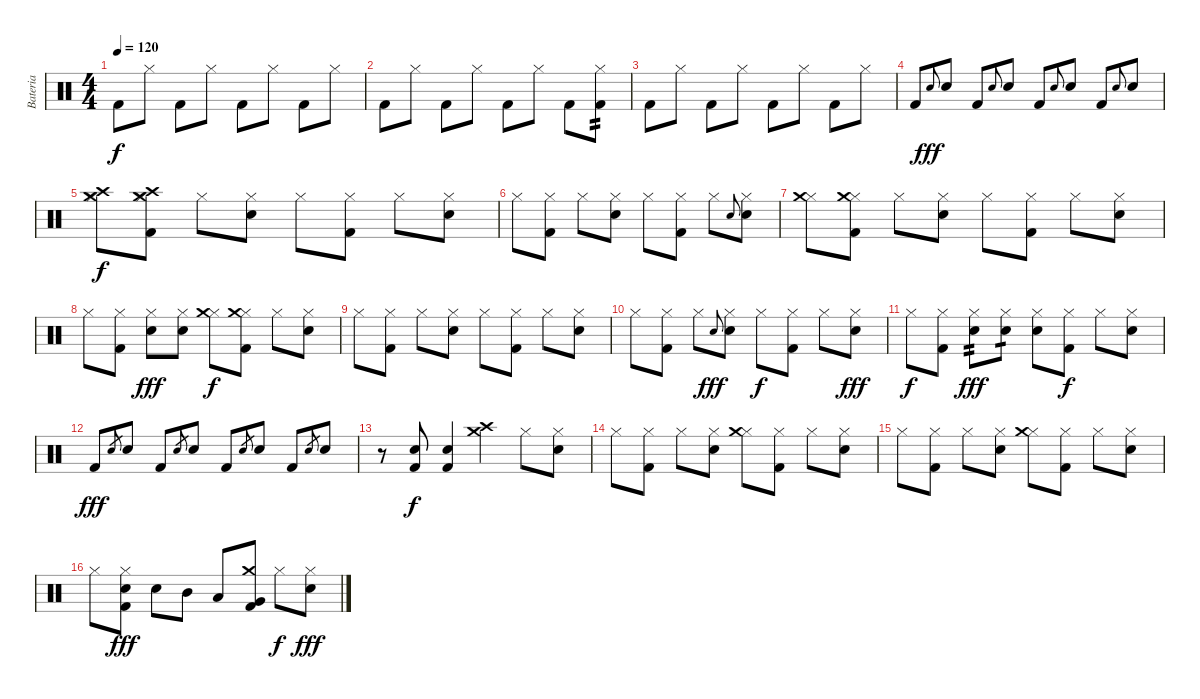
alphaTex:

\track ("Bateria" "Bateria") {instrument percussion}
\staff {score}
\articulation defaults
\ts (4 4)
\tempo 120
\clef neutral
\ks c "Kick (hit) 2".8{dy f} "Hi-Hat (closed)".8 "Kick (hit) 2".8 "Hi-Hat (closed)".8 "Kick (hit) 2".8 "Hi-Hat (closed)".8 "Kick (hit) 2".8 "Hi-Hat (closed)".8
|
"Kick (hit) 2".8 "Hi-Hat (closed)".8 "Kick (hit) 2".8 "Hi-Hat (closed)".8 "Kick (hit) 2".8 "Hi-Hat (closed)".8 "Kick (hit) 2".8 ("Hi-Hat (closed)" "Kick (hit) 2").8{tp 2} |
"Kick (hit) 2".8 "Hi-Hat (closed)".8 "Kick (hit) 2".8 "Hi-Hat (closed)".8 "Kick (hit) 2".8 "Hi-Hat (closed)".8 "Kick (hit) 2".8 "Hi-Hat (closed)".8 |
"Kick (hit) 2".8 "Electric Snare (hit)".8{gr onbeat dy fff} "Electric Snare (hit)".8 "Kick (hit) 2".8 "Electric Snare (hit)".8{gr onbeat} "Electric Snare (hit)".8 "Kick (hit) 2".8 "Electric Snare (hit)".8{gr onbeat} "Electric Snare (hit)".8 "Kick (hit) 2".8 "Electric Snare (hit)".8{gr onbeat} "Electric Snare (hit)".8 |
("Hi-Hat (closed)" "Crash medium (hit)" "Crash high (hit)").8{dy f} ("Hi-Hat (closed)" "Kick (hit) 2" "Crash medium (hit)" "Crash high (hit)").8 "Hi-Hat (closed)".8 ("Hi-Hat (closed)" "Electric Snare (hit)").8 "Hi-Hat (closed)".8 ("Hi-Hat (closed)" "Kick (hit) 2").8 "Hi-Hat (closed)".8 ("Hi-Hat (closed)" "Electric Snare (hit)").8 |
"Hi-Hat (closed)".8 ("Hi-Hat (closed)" "Kick (hit) 2").8 "Hi-Hat (closed)".8 ("Hi-Hat (closed)" "Electric Snare (hit)").8 "Hi-Hat (closed)".8 ("Hi-Hat (closed)" "Kick (hit) 2").8 "Hi-Hat (closed)".8 "Electric Snare (hit)".8{gr onbeat} ("Hi-Hat (closed)" "Electric Snare (hit)").8 |
("Hi-Hat (closed)" "Crash medium (hit)").8 ("Hi-Hat (closed)" "Kick (hit) 2" "Crash medium (hit)").8 "Hi-Hat (closed)".8 ("Hi-Hat (closed)" "Electric Snare (hit)").8 "Hi-Hat (closed)".8 ("Hi-Hat (closed)" "Kick (hit) 2").8 "Hi-Hat (closed)".8 ("Hi-Hat (closed)" "Electric Snare (hit)").8 |
"Hi-Hat (closed)".8 ("Hi-Hat (closed)" "Kick (hit) 2").8 ("Hi-Hat (closed)" "Electric Snare (hit)").8{dy fff} ("Hi-Hat (closed)" "Electric Snare (hit)").8 ("Hi-Hat (closed)" "Crash medium (hit)").8{dy f} ("Hi-Hat (closed)" "Kick (hit) 2" "Crash medium (hit)").8 "Hi-Hat (closed)".8 ("Hi-Hat (closed)" "Electric Snare (hit)").8 |
"Hi-Hat (closed)".8 ("Hi-Hat (closed)" "Kick (hit) 2").8 "Hi-Hat (closed)".8 ("Hi-Hat (closed)" "Electric Snare (hit)").8 "Hi-Hat (closed)".8 ("Hi-Hat (closed)" "Kick (hit) 2").8 "Hi-Hat (closed)".8 ("Hi-Hat (closed)" "Electric Snare (hit)").8 |
"Hi-Hat (closed)".8 ("Hi-Hat (closed)" "Kick (hit) 2").8 "Hi-Hat (closed)".8 "Electric Snare (hit)".8{gr onbeat dy fff} ("Hi-Hat (closed)" "Electric Snare (hit)").8 "Hi-Hat (closed)".8{dy f} ("Hi-Hat (closed)" "Kick (hit) 2").8 "Hi-Hat (closed)".8 ("Hi-Hat (closed)" "Electric Snare (hit)").8{dy fff} |
"Hi-Hat (closed)".8{dy f} ("Hi-Hat (closed)" "Kick (hit) 2").8 ("Hi-Hat (closed)" "Electric Snare (hit)").8{tp 2 dy fff} ("Hi-Hat (closed)" "Electric Snare (hit)").8{tp 1} ("Hi-Hat (closed)" "Electric Snare (hit)").8 ("Hi-Hat (closed)" "Kick (hit) 2").8{dy f} "Hi-Hat (closed)".8 ("Hi-Hat (closed)" "Electric Snare (hit)").8 |
"Kick (hit) 2".8{dy fff} "Electric Snare (hit)".8{gr} "Electric Snare (hit)".8 "Kick (hit) 2".8 "Electric Snare (hit)".8{gr} "Electric Snare (hit)".8 "Kick (hit) 2".8 "Electric Snare (hit)".8{gr} "Electric Snare (hit)".8 "Kick (hit) 2".8 "Electric Snare (hit)".8{gr} "Electric Snare (hit)".8 |
r.8 ("Electric Snare (hit)" "Kick (hit) 2").8{dy f} ("Electric Snare (hit)" "Kick (hit) 2").4 ("Crash medium (hit)" "Crash high (hit)").4 "Hi-Hat (closed)".8 ("Hi-Hat (closed)" "Electric Snare (hit)").8 |
"Hi-Hat (closed)".8 ("Hi-Hat (closed)" "Kick (hit) 2").8 "Hi-Hat (closed)".8 ("Hi-Hat (closed)" "Electric Snare (hit)").8 ("Hi-Hat (closed)" "Crash medium (hit)").8 ("Hi-Hat (closed)" "Kick (hit) 2").8 "Hi-Hat (closed)".8 ("Hi-Hat (closed)" "Electric Snare (hit)").8 |
"Hi-Hat (closed)".8 ("Hi-Hat (closed)" "Kick (hit) 2").8 "Hi-Hat (closed)".8 ("Hi-Hat (closed)" "Electric Snare (hit)").8 ("Hi-Hat (closed)" "Crash medium (hit)").8 ("Hi-Hat (closed)" "Kick (hit) 2").8 "Hi-Hat (closed)".8 ("Hi-Hat (closed)" "Electric Snare (hit)").8 |
"Hi-Hat (closed)".8 ("Hi-Hat (closed)" "Electric Snare (hit)" "Kick (hit) 2").8{dy fff} "Electric Snare (hit)".8 "Mid Tom (hit)".8 "Low Tom (hit)".8 ("Very Low Tom (hit)" "Kick (hit) 2" "Crash medium (hit)").8 "Hi-Hat (closed)".8{dy f} ("Hi-Hat (closed)" "Electric Snare (hit)").8{dy fff}
